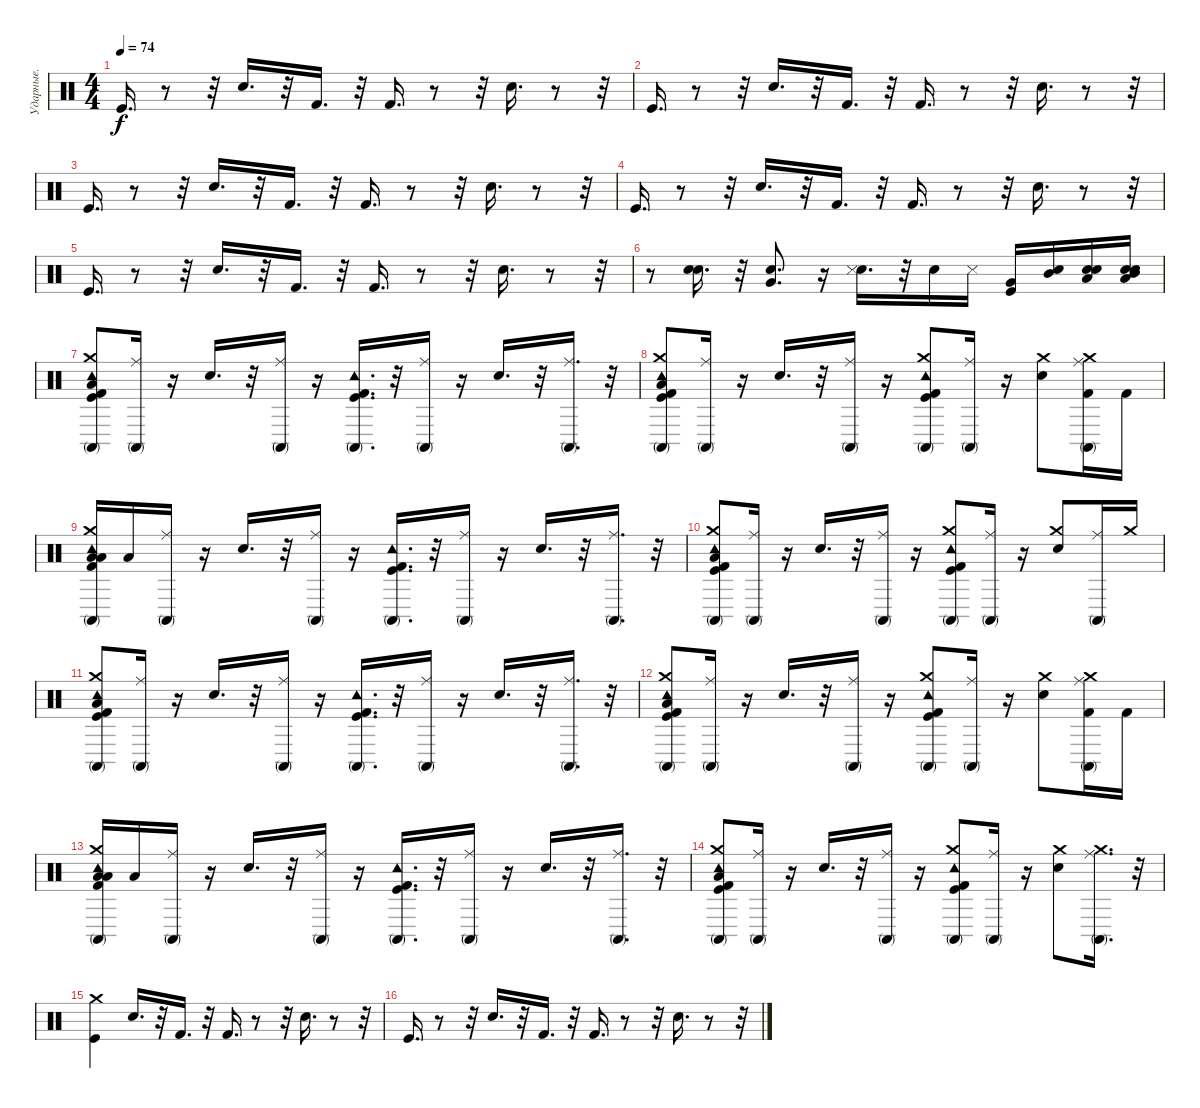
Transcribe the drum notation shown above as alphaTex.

\track ("Ударные." "Ударные.") {instrument percussion}
\staff {score}
\articulation defaults
\ts (4 4)
\tempo 74
\clef neutral
\ks c "Kick (hit)".16{d dy f}
r.8 r.32 "Electric Snare (hit)".16{d} r.32 "Kick (hit) 2".16{d} r.32 "Kick (hit) 2".16{d} r.8 r.32 "Electric Snare (hit)".16{d} r.8 r.32 |
"Kick (hit)".16{d} r.8 r.32 "Electric Snare (hit)".16{d} r.32 "Kick (hit) 2".16{d} r.32 "Kick (hit) 2".16{d} r.8 r.32 "Electric Snare (hit)".16{d} r.8 r.32 |
"Kick (hit)".16{d} r.8 r.32 "Electric Snare (hit)".16{d} r.32 "Kick (hit) 2".16{d} r.32 "Kick (hit) 2".16{d} r.8 r.32 "Electric Snare (hit)".16{d} r.8 r.32 |
"Kick (hit)".16{d} r.8 r.32 "Electric Snare (hit)".16{d} r.32 "Kick (hit) 2".16{d} r.32 "Kick (hit) 2".16{d} r.8 r.32 "Electric Snare (hit)".16{d} r.8 r.32 |
"Kick (hit)".16{d} r.8 r.32 "Electric Snare (hit)".16{d} r.32 "Kick (hit) 2".16{d} r.32 "Kick (hit) 2".16{d} r.8 r.32 "Electric Snare (hit)".16{d} r.8 r.32 |
r.8 ("Snare (hit) 2" "Electric Snare (hit)").16{d} r.32 ("Electric Snare (hit)" "Very Low Tom (hit)").8{d} r.16 ("Electric Snare (hit)" "Metronome (hit)").16{d} r.32 "Electric Snare (hit)".16 "Metronome (hit)".16 ("Kick (hit)" "Very Low Tom (hit)").16 ("Mid Tom (hit)" "Snare (hit) 2").16 ("Electric Snare (hit)" "Low Floor Tom (hit)" "Snare (hit) 2").16 ("Electric Snare (hit)" "Mid Tom (hit)" "Low Floor Tom (hit)" "Snare (hit) 2").16 |
("Crash medium (hit)" "Low Floor Tom (hit)" "Conga high (mute)" "Tambourine (hit)" "Kick (hit) 2" "Kick (hit)").8 ("Conga high (mute)" "Ride (middle)").16 r.16 "Snare (hit) 2".16{d} r.32 ("Conga high (mute)" "Ride (middle)").16 r.16 ("Conga high (mute)" "Tambourine (hit)" "Kick (hit) 2" "Kick (hit)").16{d} r.32 ("Conga high (mute)" "Ride (middle)").16 r.16 "Snare (hit) 2".16{d} r.32 ("Conga high (mute)" "Ride (middle)").16{d} r.32 |
("Crash medium (hit)" "Low Floor Tom (hit)" "Conga high (mute)" "Tambourine (hit)" "Kick (hit) 2" "Kick (hit)").8 ("Conga high (mute)" "Ride (middle)").16 r.16 "Snare (hit) 2".16{d} r.32 ("Conga high (mute)" "Ride (middle)").16 r.16 ("Crash medium (hit)" "Conga high (mute)" "Tambourine (hit)" "Kick (hit) 2" "Kick (hit)").8 ("Conga high (mute)" "Ride (middle)").16 r.16 ("Crash medium (hit)" "Snare (hit) 2").8 ("Crash medium (hit)" "Kick (hit) 2" "Conga high (mute)" "Ride (middle)").16 "Kick (hit) 2".16 |
("Low Tom (hit)" "Crash medium (hit)" "Low Floor Tom (hit)" "Conga high (mute)" "Tambourine (hit)" "Kick (hit) 2").16 "Low Floor Tom (hit)".16 ("Conga high (mute)" "Ride (middle)").16 r.16 "Snare (hit) 2".16{d} r.32 ("Conga high (mute)" "Ride (middle)").16 r.16 ("Conga high (mute)" "Tambourine (hit)" "Kick (hit) 2" "Kick (hit)").16{d} r.32 ("Conga high (mute)" "Ride (middle)").16 r.16 "Snare (hit) 2".16{d} r.32 ("Conga high (mute)" "Ride (middle)").16{d} r.32 |
("Crash medium (hit)" "Low Floor Tom (hit)" "Conga high (mute)" "Tambourine (hit)" "Kick (hit) 2" "Kick (hit)").8 ("Conga high (mute)" "Ride (middle)").16 r.16 "Snare (hit) 2".16{d} r.32 ("Conga high (mute)" "Ride (middle)").16 r.16 ("Crash medium (hit)" "Conga high (mute)" "Tambourine (hit)" "Kick (hit) 2" "Kick (hit)").8 ("Conga high (mute)" "Ride (middle)").16 r.16 ("Crash medium (hit)" "Snare (hit) 2").8 ("Conga high (mute)" "Ride (middle)").16 "Crash medium (hit)".16 |
("Crash medium (hit)" "Low Floor Tom (hit)" "Conga high (mute)" "Tambourine (hit)" "Kick (hit) 2" "Kick (hit)").8 ("Conga high (mute)" "Ride (middle)").16 r.16 "Snare (hit) 2".16{d} r.32 ("Conga high (mute)" "Ride (middle)").16 r.16 ("Conga high (mute)" "Tambourine (hit)" "Kick (hit) 2" "Kick (hit)").16{d} r.32 ("Conga high (mute)" "Ride (middle)").16 r.16 "Snare (hit) 2".16{d} r.32 ("Conga high (mute)" "Ride (middle)").16{d} r.32 |
("Crash medium (hit)" "Low Floor Tom (hit)" "Conga high (mute)" "Tambourine (hit)" "Kick (hit) 2" "Kick (hit)").8 ("Conga high (mute)" "Ride (middle)").16 r.16 "Snare (hit) 2".16{d} r.32 ("Conga high (mute)" "Ride (middle)").16 r.16 ("Crash medium (hit)" "Conga high (mute)" "Tambourine (hit)" "Kick (hit) 2" "Kick (hit)").8 ("Conga high (mute)" "Ride (middle)").16 r.16 ("Crash medium (hit)" "Snare (hit) 2").8 ("Crash medium (hit)" "Kick (hit) 2" "Conga high (mute)" "Ride (middle)").16 "Kick (hit) 2".16 |
("Low Tom (hit)" "Crash medium (hit)" "Low Floor Tom (hit)" "Conga high (mute)" "Tambourine (hit)" "Kick (hit) 2").16 "Low Floor Tom (hit)".16 ("Conga high (mute)" "Ride (middle)").16 r.16 "Snare (hit) 2".16{d} r.32 ("Conga high (mute)" "Ride (middle)").16 r.16 ("Conga high (mute)" "Tambourine (hit)" "Kick (hit) 2" "Kick (hit)").16{d} r.32 ("Conga high (mute)" "Ride (middle)").16 r.16 "Snare (hit) 2".16{d} r.32 ("Conga high (mute)" "Ride (middle)").16{d} r.32 |
("Crash medium (hit)" "Low Floor Tom (hit)" "Conga high (mute)" "Tambourine (hit)" "Kick (hit) 2" "Kick (hit)").8 ("Conga high (mute)" "Ride (middle)").16 r.16 "Snare (hit) 2".16{d} r.32 ("Conga high (mute)" "Ride (middle)").16 r.16 ("Crash medium (hit)" "Conga high (mute)" "Tambourine (hit)" "Kick (hit) 2" "Kick (hit)").8 ("Conga high (mute)" "Ride (middle)").16 r.16 ("Crash medium (hit)" "Snare (hit) 2").8 ("Crash medium (hit)" "Conga high (mute)" "Ride (middle)").16{d} r.32 |
("Crash medium (hit)" "Kick (hit)").4 "Electric Snare (hit)".16{d} r.32 "Kick (hit) 2".16{d} r.32 "Kick (hit) 2".16{d} r.8 r.32 "Electric Snare (hit)".16{d} r.8 r.32 |
"Kick (hit)".16{d} r.8 r.32 "Electric Snare (hit)".16{d} r.32 "Kick (hit) 2".16{d} r.32 "Kick (hit) 2".16{d} r.8 r.32 "Electric Snare (hit)".16{d} r.8 r.32
